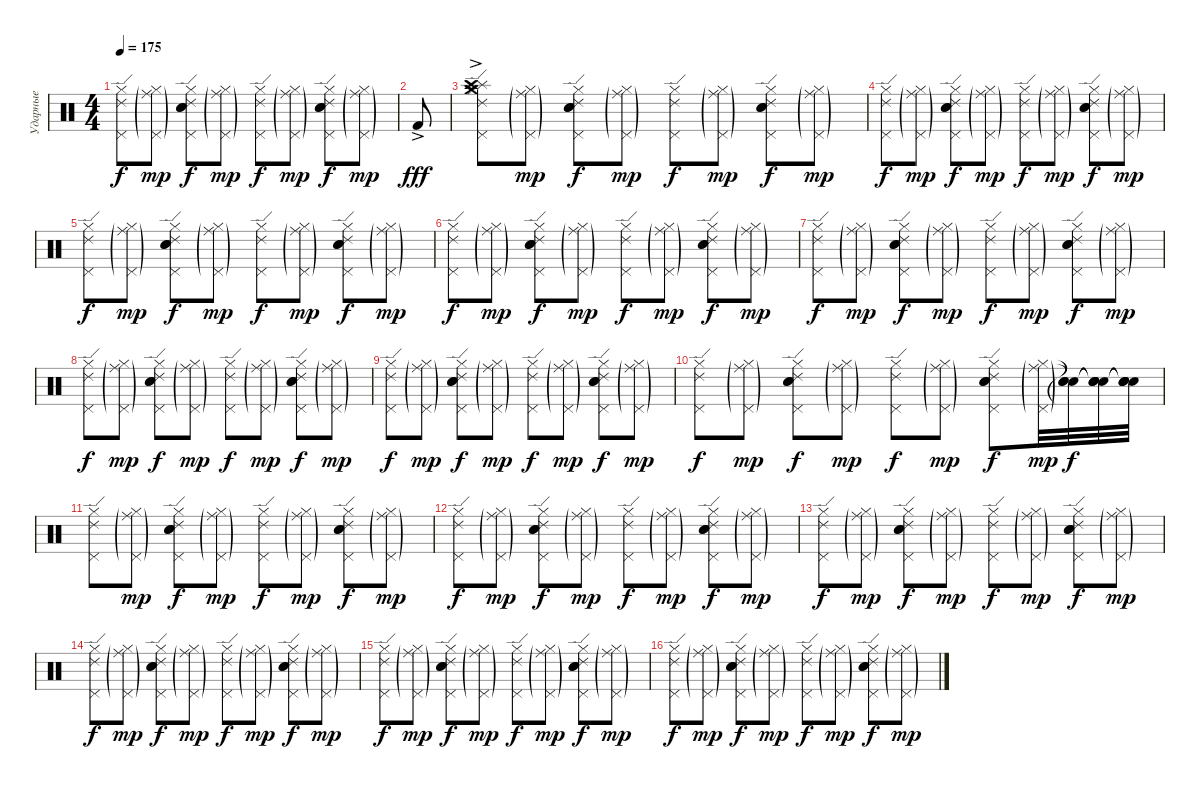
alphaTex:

\track ("Ударные" "Ударные") {instrument percussion}
\staff {score}
\articulation defaults
\ts (4 4)
\tempo 175
\clef neutral
\ks c
("Ride (edge) 2" "Hi-Hat (closed)" "Pedal Hi-Hat (hit)").8{dy f} ("Ride (middle)"{g} "Hi-Hat (closed)"{g} "Pedal Hi-Hat (hit)"{g}).8{dy mp} ("Ride (edge) 2" "Hi-Hat (closed)" "Pedal Hi-Hat (hit)" "Snare (hit) 2" "Electric Snare (hit)").8{dy f} ("Ride (middle)"{g} "Hi-Hat (closed)"{g} "Pedal Hi-Hat (hit)"{g}).8{dy mp} ("Ride (edge) 2" "Hi-Hat (closed)" "Pedal Hi-Hat (hit)").8{dy f} ("Ride (middle)"{g} "Hi-Hat (closed)"{g} "Pedal Hi-Hat (hit)"{g}).8{dy mp} ("Ride (edge) 2" "Hi-Hat (closed)" "Pedal Hi-Hat (hit)" "Snare (hit) 2" "Electric Snare (hit)").8{dy f} ("Ride (middle)"{g} "Hi-Hat (closed)"{g} "Pedal Hi-Hat (hit)"{g}).8{dy mp} |
"Kick (hit) 2"{ac}.8{dy fff} |
("Ride (edge) 2" "Hi-Hat (closed)" "Pedal Hi-Hat (hit)" "Crash medium (hit)"{ac} "Splash (hit)"{ac} "Crash high (hit)"{ac}).8 ("Ride (middle)"{g} "Hi-Hat (closed)"{g} "Pedal Hi-Hat (hit)"{g}).8{dy mp} ("Ride (edge) 2" "Hi-Hat (closed)" "Pedal Hi-Hat (hit)" "Snare (hit) 2" "Electric Snare (hit)").8{dy f} ("Ride (middle)"{g} "Hi-Hat (closed)"{g} "Pedal Hi-Hat (hit)"{g}).8{dy mp} ("Ride (edge) 2" "Hi-Hat (closed)" "Pedal Hi-Hat (hit)").8{dy f} ("Ride (middle)"{g} "Hi-Hat (closed)"{g} "Pedal Hi-Hat (hit)"{g}).8{dy mp} ("Ride (edge) 2" "Hi-Hat (closed)" "Pedal Hi-Hat (hit)" "Snare (hit) 2" "Electric Snare (hit)").8{dy f} ("Ride (middle)"{g} "Hi-Hat (closed)"{g} "Pedal Hi-Hat (hit)"{g}).8{dy mp} |
("Ride (edge) 2" "Hi-Hat (closed)" "Pedal Hi-Hat (hit)").8{dy f} ("Ride (middle)"{g} "Hi-Hat (closed)"{g} "Pedal Hi-Hat (hit)"{g}).8{dy mp} ("Ride (edge) 2" "Hi-Hat (closed)" "Pedal Hi-Hat (hit)" "Snare (hit) 2" "Electric Snare (hit)").8{dy f} ("Ride (middle)"{g} "Hi-Hat (closed)"{g} "Pedal Hi-Hat (hit)"{g}).8{dy mp} ("Ride (edge) 2" "Hi-Hat (closed)" "Pedal Hi-Hat (hit)").8{dy f} ("Ride (middle)"{g} "Hi-Hat (closed)"{g} "Pedal Hi-Hat (hit)"{g}).8{dy mp} ("Ride (edge) 2" "Hi-Hat (closed)" "Pedal Hi-Hat (hit)" "Snare (hit) 2" "Electric Snare (hit)").8{dy f} ("Ride (middle)"{g} "Hi-Hat (closed)"{g} "Pedal Hi-Hat (hit)"{g}).8{dy mp} |
("Ride (edge) 2" "Hi-Hat (closed)" "Pedal Hi-Hat (hit)").8{dy f} ("Ride (middle)"{g} "Hi-Hat (closed)"{g} "Pedal Hi-Hat (hit)"{g}).8{dy mp} ("Ride (edge) 2" "Hi-Hat (closed)" "Pedal Hi-Hat (hit)" "Snare (hit) 2" "Electric Snare (hit)").8{dy f} ("Ride (middle)"{g} "Hi-Hat (closed)"{g} "Pedal Hi-Hat (hit)"{g}).8{dy mp} ("Ride (edge) 2" "Hi-Hat (closed)" "Pedal Hi-Hat (hit)").8{dy f} ("Ride (middle)"{g} "Hi-Hat (closed)"{g} "Pedal Hi-Hat (hit)"{g}).8{dy mp} ("Ride (edge) 2" "Hi-Hat (closed)" "Pedal Hi-Hat (hit)" "Snare (hit) 2" "Electric Snare (hit)").8{dy f} ("Ride (middle)"{g} "Hi-Hat (closed)"{g} "Pedal Hi-Hat (hit)"{g}).8{dy mp} |
("Ride (edge) 2" "Hi-Hat (closed)" "Pedal Hi-Hat (hit)").8{dy f} ("Ride (middle)"{g} "Hi-Hat (closed)"{g} "Pedal Hi-Hat (hit)"{g}).8{dy mp} ("Ride (edge) 2" "Hi-Hat (closed)" "Pedal Hi-Hat (hit)" "Snare (hit) 2" "Electric Snare (hit)").8{dy f} ("Ride (middle)"{g} "Hi-Hat (closed)"{g} "Pedal Hi-Hat (hit)"{g}).8{dy mp} ("Ride (edge) 2" "Hi-Hat (closed)" "Pedal Hi-Hat (hit)").8{dy f} ("Ride (middle)"{g} "Hi-Hat (closed)"{g} "Pedal Hi-Hat (hit)"{g}).8{dy mp} ("Ride (edge) 2" "Hi-Hat (closed)" "Pedal Hi-Hat (hit)" "Snare (hit) 2" "Electric Snare (hit)").8{dy f} ("Ride (middle)"{g} "Hi-Hat (closed)"{g} "Pedal Hi-Hat (hit)"{g}).8{dy mp} |
("Ride (edge) 2" "Hi-Hat (closed)" "Pedal Hi-Hat (hit)").8{dy f} ("Ride (middle)"{g} "Hi-Hat (closed)"{g} "Pedal Hi-Hat (hit)"{g}).8{dy mp} ("Ride (edge) 2" "Hi-Hat (closed)" "Pedal Hi-Hat (hit)" "Snare (hit) 2" "Electric Snare (hit)").8{dy f} ("Ride (middle)"{g} "Hi-Hat (closed)"{g} "Pedal Hi-Hat (hit)"{g}).8{dy mp} ("Ride (edge) 2" "Hi-Hat (closed)" "Pedal Hi-Hat (hit)").8{dy f} ("Ride (middle)"{g} "Hi-Hat (closed)"{g} "Pedal Hi-Hat (hit)"{g}).8{dy mp} ("Ride (edge) 2" "Hi-Hat (closed)" "Pedal Hi-Hat (hit)" "Snare (hit) 2" "Electric Snare (hit)").8{dy f} ("Ride (middle)"{g} "Hi-Hat (closed)"{g} "Pedal Hi-Hat (hit)"{g}).8{dy mp} |
("Ride (edge) 2" "Hi-Hat (closed)" "Pedal Hi-Hat (hit)").8{dy f} ("Ride (middle)"{g} "Hi-Hat (closed)"{g} "Pedal Hi-Hat (hit)"{g}).8{dy mp} ("Ride (edge) 2" "Hi-Hat (closed)" "Pedal Hi-Hat (hit)" "Snare (hit) 2" "Electric Snare (hit)").8{dy f} ("Ride (middle)"{g} "Hi-Hat (closed)"{g} "Pedal Hi-Hat (hit)"{g}).8{dy mp} ("Ride (edge) 2" "Hi-Hat (closed)" "Pedal Hi-Hat (hit)").8{dy f} ("Ride (middle)"{g} "Hi-Hat (closed)"{g} "Pedal Hi-Hat (hit)"{g}).8{dy mp} ("Ride (edge) 2" "Hi-Hat (closed)" "Pedal Hi-Hat (hit)" "Snare (hit) 2" "Electric Snare (hit)").8{dy f} ("Ride (middle)"{g} "Hi-Hat (closed)"{g} "Pedal Hi-Hat (hit)"{g}).8{dy mp} |
("Ride (edge) 2" "Hi-Hat (closed)" "Pedal Hi-Hat (hit)").8{dy f} ("Ride (middle)"{g} "Hi-Hat (closed)"{g} "Pedal Hi-Hat (hit)"{g}).8{dy mp} ("Ride (edge) 2" "Hi-Hat (closed)" "Pedal Hi-Hat (hit)" "Snare (hit) 2" "Electric Snare (hit)").8{dy f} ("Ride (middle)"{g} "Hi-Hat (closed)"{g} "Pedal Hi-Hat (hit)"{g}).8{dy mp} ("Ride (edge) 2" "Hi-Hat (closed)" "Pedal Hi-Hat (hit)").8{dy f} ("Ride (middle)"{g} "Hi-Hat (closed)"{g} "Pedal Hi-Hat (hit)"{g}).8{dy mp} ("Ride (edge) 2" "Hi-Hat (closed)" "Pedal Hi-Hat (hit)" "Snare (hit) 2" "Electric Snare (hit)").8{dy f} ("Ride (middle)"{g} "Hi-Hat (closed)"{g} "Pedal Hi-Hat (hit)"{g}).8{dy mp} |
("Ride (edge) 2" "Hi-Hat (closed)" "Pedal Hi-Hat (hit)").8{dy f} ("Ride (middle)"{g} "Hi-Hat (closed)"{g} "Pedal Hi-Hat (hit)"{g}).8{dy mp} ("Ride (edge) 2" "Hi-Hat (closed)" "Pedal Hi-Hat (hit)" "Snare (hit) 2" "Electric Snare (hit)").8{dy f} ("Ride (middle)"{g} "Hi-Hat (closed)"{g} "Pedal Hi-Hat (hit)"{g}).8{dy mp} ("Ride (edge) 2" "Hi-Hat (closed)" "Pedal Hi-Hat (hit)").8{dy f} ("Ride (middle)"{g} "Hi-Hat (closed)"{g} "Pedal Hi-Hat (hit)"{g}).8{dy mp} ("Ride (edge) 2" "Hi-Hat (closed)" "Pedal Hi-Hat (hit)" "Snare (hit) 2" "Electric Snare (hit)").8{dy f} ("Ride (middle)"{g} "Hi-Hat (closed)"{g} "Pedal Hi-Hat (hit)"{g}).32{dy mp} ("Snare (hit)"{t} "Snare (hit)"{t} "Snare (hit)"{t}).32{dy f} ("Snare (hit)"{t} "Snare (hit)"{t} "Snare (hit)"{t} "Electric Snare (hit)").32 ("Snare (hit)"{t} "Snare (hit)"{t} "Snare (hit)"{t} "Electric Snare (hit)").32 |
("Ride (edge) 2" "Hi-Hat (closed)" "Pedal Hi-Hat (hit)").8 ("Ride (middle)"{g} "Hi-Hat (closed)"{g} "Pedal Hi-Hat (hit)"{g}).8{dy mp} ("Ride (edge) 2" "Hi-Hat (closed)" "Pedal Hi-Hat (hit)" "Snare (hit) 2" "Electric Snare (hit)").8{dy f} ("Ride (middle)"{g} "Hi-Hat (closed)"{g} "Pedal Hi-Hat (hit)"{g}).8{dy mp} ("Ride (edge) 2" "Hi-Hat (closed)" "Pedal Hi-Hat (hit)").8{dy f} ("Ride (middle)"{g} "Hi-Hat (closed)"{g} "Pedal Hi-Hat (hit)"{g}).8{dy mp} ("Ride (edge) 2" "Hi-Hat (closed)" "Pedal Hi-Hat (hit)" "Snare (hit) 2" "Electric Snare (hit)").8{dy f} ("Ride (middle)"{g} "Hi-Hat (closed)"{g} "Pedal Hi-Hat (hit)"{g}).8{dy mp} |
("Ride (edge) 2" "Hi-Hat (closed)" "Pedal Hi-Hat (hit)").8{dy f} ("Ride (middle)"{g} "Hi-Hat (closed)"{g} "Pedal Hi-Hat (hit)"{g}).8{dy mp} ("Ride (edge) 2" "Hi-Hat (closed)" "Pedal Hi-Hat (hit)" "Snare (hit) 2" "Electric Snare (hit)").8{dy f} ("Ride (middle)"{g} "Hi-Hat (closed)"{g} "Pedal Hi-Hat (hit)"{g}).8{dy mp} ("Ride (edge) 2" "Hi-Hat (closed)" "Pedal Hi-Hat (hit)").8{dy f} ("Ride (middle)"{g} "Hi-Hat (closed)"{g} "Pedal Hi-Hat (hit)"{g}).8{dy mp} ("Ride (edge) 2" "Hi-Hat (closed)" "Pedal Hi-Hat (hit)" "Snare (hit) 2" "Electric Snare (hit)").8{dy f} ("Ride (middle)"{g} "Hi-Hat (closed)"{g} "Pedal Hi-Hat (hit)"{g}).8{dy mp} |
("Ride (edge) 2" "Hi-Hat (closed)" "Pedal Hi-Hat (hit)").8{dy f} ("Ride (middle)"{g} "Hi-Hat (closed)"{g} "Pedal Hi-Hat (hit)"{g}).8{dy mp} ("Ride (edge) 2" "Hi-Hat (closed)" "Pedal Hi-Hat (hit)" "Snare (hit) 2" "Electric Snare (hit)").8{dy f} ("Ride (middle)"{g} "Hi-Hat (closed)"{g} "Pedal Hi-Hat (hit)"{g}).8{dy mp} ("Ride (edge) 2" "Hi-Hat (closed)" "Pedal Hi-Hat (hit)").8{dy f} ("Ride (middle)"{g} "Hi-Hat (closed)"{g} "Pedal Hi-Hat (hit)"{g}).8{dy mp} ("Ride (edge) 2" "Hi-Hat (closed)" "Pedal Hi-Hat (hit)" "Snare (hit) 2" "Electric Snare (hit)").8{dy f} ("Ride (middle)"{g} "Hi-Hat (closed)"{g} "Pedal Hi-Hat (hit)"{g}).8{dy mp} |
("Ride (edge) 2" "Hi-Hat (closed)" "Pedal Hi-Hat (hit)").8{dy f} ("Ride (middle)"{g} "Hi-Hat (closed)"{g} "Pedal Hi-Hat (hit)"{g}).8{dy mp} ("Ride (edge) 2" "Hi-Hat (closed)" "Pedal Hi-Hat (hit)" "Snare (hit) 2" "Electric Snare (hit)").8{dy f} ("Ride (middle)"{g} "Hi-Hat (closed)"{g} "Pedal Hi-Hat (hit)"{g}).8{dy mp} ("Ride (edge) 2" "Hi-Hat (closed)" "Pedal Hi-Hat (hit)").8{dy f} ("Ride (middle)"{g} "Hi-Hat (closed)"{g} "Pedal Hi-Hat (hit)"{g}).8{dy mp} ("Ride (edge) 2" "Hi-Hat (closed)" "Pedal Hi-Hat (hit)" "Snare (hit) 2" "Electric Snare (hit)").8{dy f} ("Ride (middle)"{g} "Hi-Hat (closed)"{g} "Pedal Hi-Hat (hit)"{g}).8{dy mp} |
("Ride (edge) 2" "Hi-Hat (closed)" "Pedal Hi-Hat (hit)").8{dy f} ("Ride (middle)"{g} "Hi-Hat (closed)"{g} "Pedal Hi-Hat (hit)"{g}).8{dy mp} ("Ride (edge) 2" "Hi-Hat (closed)" "Pedal Hi-Hat (hit)" "Snare (hit) 2" "Electric Snare (hit)").8{dy f} ("Ride (middle)"{g} "Hi-Hat (closed)"{g} "Pedal Hi-Hat (hit)"{g}).8{dy mp} ("Ride (edge) 2" "Hi-Hat (closed)" "Pedal Hi-Hat (hit)").8{dy f} ("Ride (middle)"{g} "Hi-Hat (closed)"{g} "Pedal Hi-Hat (hit)"{g}).8{dy mp} ("Ride (edge) 2" "Hi-Hat (closed)" "Pedal Hi-Hat (hit)" "Snare (hit) 2" "Electric Snare (hit)").8{dy f} ("Ride (middle)"{g} "Hi-Hat (closed)"{g} "Pedal Hi-Hat (hit)"{g}).8{dy mp} |
("Ride (edge) 2" "Hi-Hat (closed)" "Pedal Hi-Hat (hit)").8{dy f} ("Ride (middle)"{g} "Hi-Hat (closed)"{g} "Pedal Hi-Hat (hit)"{g}).8{dy mp} ("Ride (edge) 2" "Hi-Hat (closed)" "Pedal Hi-Hat (hit)" "Snare (hit) 2" "Electric Snare (hit)").8{dy f} ("Ride (middle)"{g} "Hi-Hat (closed)"{g} "Pedal Hi-Hat (hit)"{g}).8{dy mp} ("Ride (edge) 2" "Hi-Hat (closed)" "Pedal Hi-Hat (hit)").8{dy f} ("Ride (middle)"{g} "Hi-Hat (closed)"{g} "Pedal Hi-Hat (hit)"{g}).8{dy mp} ("Ride (edge) 2" "Hi-Hat (closed)" "Pedal Hi-Hat (hit)" "Snare (hit) 2" "Electric Snare (hit)").8{dy f} ("Ride (middle)"{g} "Hi-Hat (closed)"{g} "Pedal Hi-Hat (hit)"{g}).8{dy mp}
